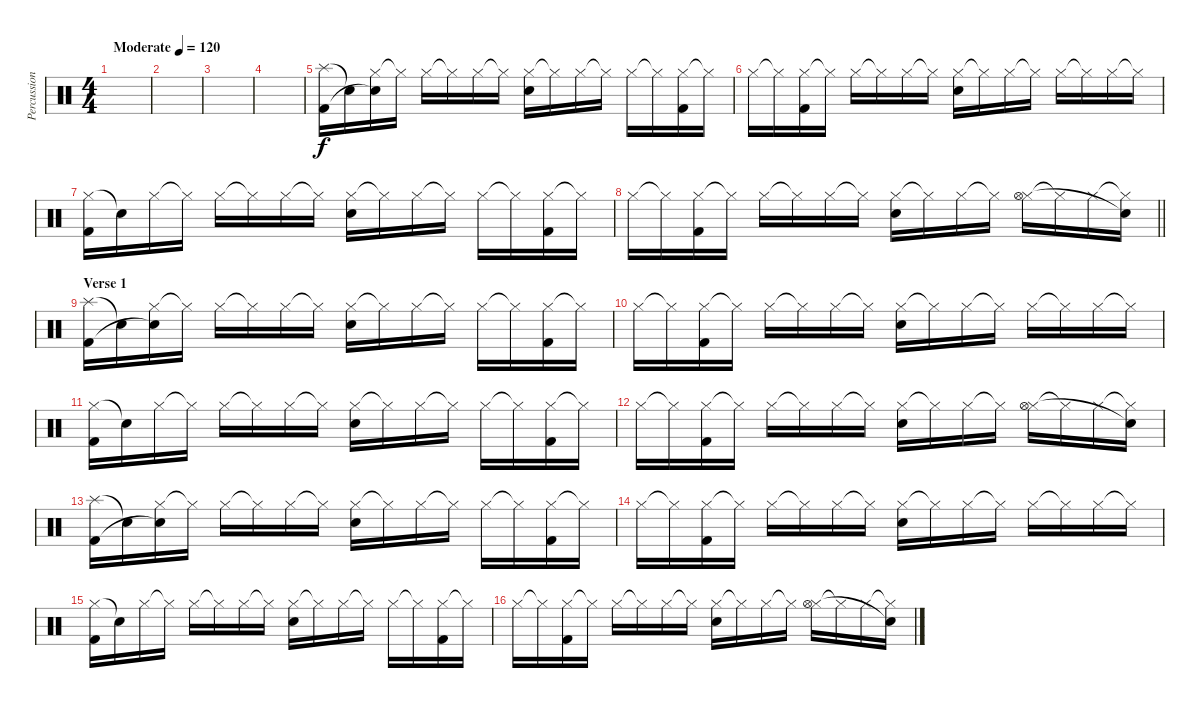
\track ("Percussion" "Percussion") {instrument percussion}
\staff {score}
\articulation defaults
\ts (4 4)
\tempo (120 "Moderate")
\clef neutral
\ks c
|
|
|
|
("Splash (hit)" "Kick (hit) 2").16 "Snare (hit)"{t}.16 ("Hi-Hat (closed)" "Snare (hit)"{t}).16 "Hi-Hat (closed)"{t}.16 "Hi-Hat (closed)".16 "Hi-Hat (closed)"{t}.16 "Hi-Hat (closed)".16 "Hi-Hat (closed)"{t}.16 ("Hi-Hat (closed)" "Snare (hit) 2").16 "Hi-Hat (closed)"{t}.16 "Hi-Hat (closed)".16 "Hi-Hat (closed)"{t}.16 "Hi-Hat (closed)".16 "Hi-Hat (closed)"{t}.16 ("Hi-Hat (closed)" "Kick (hit) 2").16 "Hi-Hat (closed)"{t}.16 |
"Hi-Hat (closed)".16 "Hi-Hat (closed)"{t}.16 ("Hi-Hat (closed)" "Kick (hit) 2").16 "Hi-Hat (closed)"{t}.16 "Hi-Hat (closed)".16 "Hi-Hat (closed)"{t}.16 "Hi-Hat (closed)".16 "Hi-Hat (closed)"{t}.16 ("Hi-Hat (closed)" "Snare (hit) 2").16 "Hi-Hat (closed)"{t}.16 "Hi-Hat (closed)".16 "Hi-Hat (closed)"{t}.16 "Hi-Hat (closed)".16 "Hi-Hat (closed)"{t}.16 "Hi-Hat (closed)".16 "Hi-Hat (closed)"{t}.16 |
("Hi-Hat (closed)" "Kick (hit) 2").16 "Snare (hit)"{t}.16 "Hi-Hat (closed)".16 "Hi-Hat (closed)"{t}.16 "Hi-Hat (closed)".16 "Hi-Hat (closed)"{t}.16 "Hi-Hat (closed)".16 "Hi-Hat (closed)"{t}.16 ("Hi-Hat (closed)" "Snare (hit) 2").16 "Hi-Hat (closed)"{t}.16 "Hi-Hat (closed)".16 "Hi-Hat (closed)"{t}.16 "Hi-Hat (closed)".16 "Hi-Hat (closed)"{t}.16 ("Hi-Hat (closed)" "Kick (hit) 2").16 "Hi-Hat (closed)"{t}.16 |
\barLineRight lightlight "Hi-Hat (closed)".16 "Hi-Hat (closed)"{t}.16
("Hi-Hat (closed)" "Kick (hit) 2").16 "Hi-Hat (closed)"{t}.16 "Hi-Hat (closed)".16 "Hi-Hat (closed)"{t}.16 "Hi-Hat (closed)".16 "Hi-Hat (closed)"{t}.16 ("Hi-Hat (closed)" "Snare (hit) 2").16 "Hi-Hat (closed)"{t}.16 "Hi-Hat (closed)".16 "Hi-Hat (closed)"{t}.16 ("Hi-Hat (closed)" "Hi-Hat (open)").16 "Hi-Hat (closed)"{t}.16 "Hi-Hat (closed)".16 ("Hi-Hat (closed)"{t} "Snare (hit)"{t}).16 |
\section ("" "Verse 1")
("Splash (hit)" "Kick (hit) 2").16 "Snare (hit)"{t}.16 ("Hi-Hat (closed)" "Snare (hit)"{t}).16 "Hi-Hat (closed)"{t}.16 "Hi-Hat (closed)".16 "Hi-Hat (closed)"{t}.16 "Hi-Hat (closed)".16 "Hi-Hat (closed)"{t}.16 ("Hi-Hat (closed)" "Snare (hit) 2").16 "Hi-Hat (closed)"{t}.16 "Hi-Hat (closed)".16 "Hi-Hat (closed)"{t}.16 "Hi-Hat (closed)".16 "Hi-Hat (closed)"{t}.16 ("Hi-Hat (closed)" "Kick (hit) 2").16 "Hi-Hat (closed)"{t}.16 |
"Hi-Hat (closed)".16 "Hi-Hat (closed)"{t}.16 ("Hi-Hat (closed)" "Kick (hit) 2").16 "Hi-Hat (closed)"{t}.16 "Hi-Hat (closed)".16 "Hi-Hat (closed)"{t}.16 "Hi-Hat (closed)".16 "Hi-Hat (closed)"{t}.16 ("Hi-Hat (closed)" "Snare (hit) 2").16 "Hi-Hat (closed)"{t}.16 "Hi-Hat (closed)".16 "Hi-Hat (closed)"{t}.16 "Hi-Hat (closed)".16 "Hi-Hat (closed)"{t}.16 "Hi-Hat (closed)".16 "Hi-Hat (closed)"{t}.16 |
("Hi-Hat (closed)" "Kick (hit) 2").16 "Snare (hit)"{t}.16 "Hi-Hat (closed)".16 "Hi-Hat (closed)"{t}.16 "Hi-Hat (closed)".16 "Hi-Hat (closed)"{t}.16 "Hi-Hat (closed)".16 "Hi-Hat (closed)"{t}.16 ("Hi-Hat (closed)" "Snare (hit) 2").16 "Hi-Hat (closed)"{t}.16 "Hi-Hat (closed)".16 "Hi-Hat (closed)"{t}.16 "Hi-Hat (closed)".16 "Hi-Hat (closed)"{t}.16 ("Hi-Hat (closed)" "Kick (hit) 2").16 "Hi-Hat (closed)"{t}.16 |
"Hi-Hat (closed)".16 "Hi-Hat (closed)"{t}.16 ("Hi-Hat (closed)" "Kick (hit) 2").16 "Hi-Hat (closed)"{t}.16 "Hi-Hat (closed)".16 "Hi-Hat (closed)"{t}.16 "Hi-Hat (closed)".16 "Hi-Hat (closed)"{t}.16 ("Hi-Hat (closed)" "Snare (hit) 2").16 "Hi-Hat (closed)"{t}.16 "Hi-Hat (closed)".16 "Hi-Hat (closed)"{t}.16 ("Hi-Hat (closed)" "Hi-Hat (open)").16 "Hi-Hat (closed)"{t}.16 "Hi-Hat (closed)".16 ("Hi-Hat (closed)"{t} "Snare (hit)"{t}).16 |
("Splash (hit)" "Kick (hit) 2").16 "Snare (hit)"{t}.16 ("Hi-Hat (closed)" "Snare (hit)"{t}).16 "Hi-Hat (closed)"{t}.16 "Hi-Hat (closed)".16 "Hi-Hat (closed)"{t}.16 "Hi-Hat (closed)".16 "Hi-Hat (closed)"{t}.16 ("Hi-Hat (closed)" "Snare (hit) 2").16 "Hi-Hat (closed)"{t}.16 "Hi-Hat (closed)".16 "Hi-Hat (closed)"{t}.16 "Hi-Hat (closed)".16 "Hi-Hat (closed)"{t}.16 ("Hi-Hat (closed)" "Kick (hit) 2").16 "Hi-Hat (closed)"{t}.16 |
"Hi-Hat (closed)".16 "Hi-Hat (closed)"{t}.16 ("Hi-Hat (closed)" "Kick (hit) 2").16 "Hi-Hat (closed)"{t}.16 "Hi-Hat (closed)".16 "Hi-Hat (closed)"{t}.16 "Hi-Hat (closed)".16 "Hi-Hat (closed)"{t}.16 ("Hi-Hat (closed)" "Snare (hit) 2").16 "Hi-Hat (closed)"{t}.16 "Hi-Hat (closed)".16 "Hi-Hat (closed)"{t}.16 "Hi-Hat (closed)".16 "Hi-Hat (closed)"{t}.16 "Hi-Hat (closed)".16 "Hi-Hat (closed)"{t}.16 |
("Hi-Hat (closed)" "Kick (hit) 2").16 "Snare (hit)"{t}.16 "Hi-Hat (closed)".16 "Hi-Hat (closed)"{t}.16 "Hi-Hat (closed)".16 "Hi-Hat (closed)"{t}.16 "Hi-Hat (closed)".16 "Hi-Hat (closed)"{t}.16 ("Hi-Hat (closed)" "Snare (hit) 2").16 "Hi-Hat (closed)"{t}.16 "Hi-Hat (closed)".16 "Hi-Hat (closed)"{t}.16 "Hi-Hat (closed)".16 "Hi-Hat (closed)"{t}.16 ("Hi-Hat (closed)" "Kick (hit) 2").16 "Hi-Hat (closed)"{t}.16 |
"Hi-Hat (closed)".16 "Hi-Hat (closed)"{t}.16 ("Hi-Hat (closed)" "Kick (hit) 2").16 "Hi-Hat (closed)"{t}.16 "Hi-Hat (closed)".16 "Hi-Hat (closed)"{t}.16 "Hi-Hat (closed)".16 "Hi-Hat (closed)"{t}.16 ("Hi-Hat (closed)" "Snare (hit) 2").16 "Hi-Hat (closed)"{t}.16 "Hi-Hat (closed)".16 "Hi-Hat (closed)"{t}.16 ("Hi-Hat (closed)" "Hi-Hat (open)").16 "Hi-Hat (closed)"{t}.16 "Hi-Hat (closed)".16 ("Hi-Hat (closed)"{t} "Snare (hit)"{t}).16
